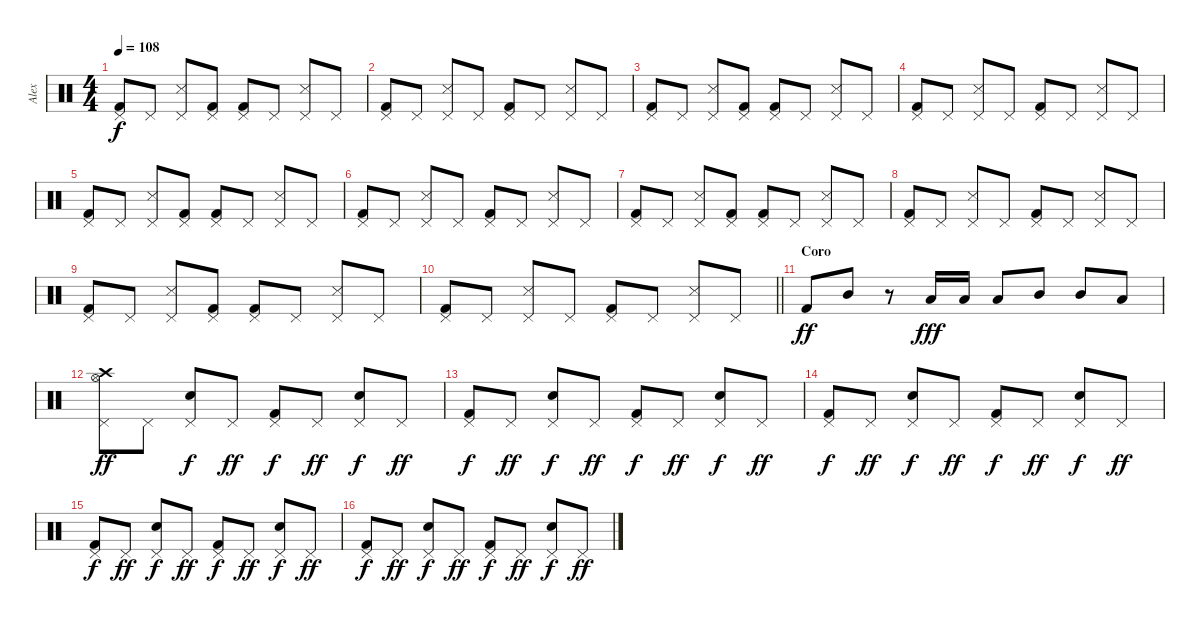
\track ("Alex" "Alex") {instrument percussion}
\staff {score}
\articulation defaults
\ts (4 4)
\tempo 108
\clef neutral
\ks c
("Kick (hit) 2" "Pedal Hi-Hat (hit)").8{dy f} "Pedal Hi-Hat (hit)".8 ("Snare (side stick) 3" "Pedal Hi-Hat (hit)").8 ("Kick (hit) 2" "Pedal Hi-Hat (hit)").8 ("Kick (hit) 2" "Pedal Hi-Hat (hit)").8 "Pedal Hi-Hat (hit)".8 ("Snare (side stick) 3" "Pedal Hi-Hat (hit)").8 "Pedal Hi-Hat (hit)".8 |
("Kick (hit) 2" "Pedal Hi-Hat (hit)").8 "Pedal Hi-Hat (hit)".8 ("Snare (side stick) 3" "Pedal Hi-Hat (hit)").8 "Pedal Hi-Hat (hit)".8 ("Kick (hit) 2" "Pedal Hi-Hat (hit)").8 "Pedal Hi-Hat (hit)".8 ("Snare (side stick) 3" "Pedal Hi-Hat (hit)").8 "Pedal Hi-Hat (hit)".8 |
("Kick (hit) 2" "Pedal Hi-Hat (hit)").8 "Pedal Hi-Hat (hit)".8 ("Snare (side stick) 3" "Pedal Hi-Hat (hit)").8 ("Kick (hit) 2" "Pedal Hi-Hat (hit)").8 ("Kick (hit) 2" "Pedal Hi-Hat (hit)").8 "Pedal Hi-Hat (hit)".8 ("Snare (side stick) 3" "Pedal Hi-Hat (hit)").8 "Pedal Hi-Hat (hit)".8 |
("Kick (hit) 2" "Pedal Hi-Hat (hit)").8 "Pedal Hi-Hat (hit)".8 ("Snare (side stick) 3" "Pedal Hi-Hat (hit)").8 "Pedal Hi-Hat (hit)".8 ("Kick (hit) 2" "Pedal Hi-Hat (hit)").8 "Pedal Hi-Hat (hit)".8 ("Snare (side stick) 3" "Pedal Hi-Hat (hit)").8 "Pedal Hi-Hat (hit)".8 |
("Kick (hit) 2" "Pedal Hi-Hat (hit)").8 "Pedal Hi-Hat (hit)".8 ("Snare (side stick) 3" "Pedal Hi-Hat (hit)").8 ("Kick (hit) 2" "Pedal Hi-Hat (hit)").8 ("Kick (hit) 2" "Pedal Hi-Hat (hit)").8 "Pedal Hi-Hat (hit)".8 ("Snare (side stick) 3" "Pedal Hi-Hat (hit)").8 "Pedal Hi-Hat (hit)".8 |
("Kick (hit) 2" "Pedal Hi-Hat (hit)").8 "Pedal Hi-Hat (hit)".8 ("Snare (side stick) 3" "Pedal Hi-Hat (hit)").8 "Pedal Hi-Hat (hit)".8 ("Kick (hit) 2" "Pedal Hi-Hat (hit)").8 "Pedal Hi-Hat (hit)".8 ("Snare (side stick) 3" "Pedal Hi-Hat (hit)").8 "Pedal Hi-Hat (hit)".8 |
("Kick (hit) 2" "Pedal Hi-Hat (hit)").8 "Pedal Hi-Hat (hit)".8 ("Snare (side stick) 3" "Pedal Hi-Hat (hit)").8 ("Kick (hit) 2" "Pedal Hi-Hat (hit)").8 ("Kick (hit) 2" "Pedal Hi-Hat (hit)").8 "Pedal Hi-Hat (hit)".8 ("Snare (side stick) 3" "Pedal Hi-Hat (hit)").8 "Pedal Hi-Hat (hit)".8 |
("Kick (hit) 2" "Pedal Hi-Hat (hit)").8 "Pedal Hi-Hat (hit)".8 ("Snare (side stick) 3" "Pedal Hi-Hat (hit)").8 "Pedal Hi-Hat (hit)".8 ("Kick (hit) 2" "Pedal Hi-Hat (hit)").8 "Pedal Hi-Hat (hit)".8 ("Snare (side stick) 3" "Pedal Hi-Hat (hit)").8 "Pedal Hi-Hat (hit)".8 |
("Kick (hit) 2" "Pedal Hi-Hat (hit)").8 "Pedal Hi-Hat (hit)".8 ("Snare (side stick) 3" "Pedal Hi-Hat (hit)").8 ("Kick (hit) 2" "Pedal Hi-Hat (hit)").8 ("Kick (hit) 2" "Pedal Hi-Hat (hit)").8 "Pedal Hi-Hat (hit)".8 ("Snare (side stick) 3" "Pedal Hi-Hat (hit)").8 "Pedal Hi-Hat (hit)".8 |
\barLineRight lightlight
("Kick (hit) 2" "Pedal Hi-Hat (hit)").8 "Pedal Hi-Hat (hit)".8 ("Snare (side stick) 3" "Pedal Hi-Hat (hit)").8 "Pedal Hi-Hat (hit)".8 ("Kick (hit) 2" "Pedal Hi-Hat (hit)").8 "Pedal Hi-Hat (hit)".8 ("Snare (side stick) 3" "Pedal Hi-Hat (hit)").8 "Pedal Hi-Hat (hit)".8 |
\section ("" "Coro")
"Kick (hit) 2".8{dy ff} "Mid Tom (hit)".8 r.8 "Low Tom (hit)".16{dy fff} "Low Tom (hit)".16 "Low Tom (hit)".8 "Mid Tom (hit)".8 "Mid Tom (hit)".8 "Low Tom (hit)".8 |
("Hi-Hat (open)" "Crash high (hit)" "Pedal Hi-Hat (hit)").8{dy ff} "Pedal Hi-Hat (hit)".8 ("Electric Snare (hit)" "Pedal Hi-Hat (hit)").8{dy f} "Pedal Hi-Hat (hit)".8{dy ff} ("Kick (hit) 2" "Pedal Hi-Hat (hit)").8{dy f} "Pedal Hi-Hat (hit)".8{dy ff} ("Electric Snare (hit)" "Pedal Hi-Hat (hit)").8{dy f} "Pedal Hi-Hat (hit)".8{dy ff} |
("Kick (hit) 2" "Pedal Hi-Hat (hit)").8{dy f} "Pedal Hi-Hat (hit)".8{dy ff} ("Electric Snare (hit)" "Pedal Hi-Hat (hit)").8{dy f} "Pedal Hi-Hat (hit)".8{dy ff} ("Kick (hit) 2" "Pedal Hi-Hat (hit)").8{dy f} "Pedal Hi-Hat (hit)".8{dy ff} ("Electric Snare (hit)" "Pedal Hi-Hat (hit)").8{dy f} "Pedal Hi-Hat (hit)".8{dy ff} |
("Kick (hit) 2" "Pedal Hi-Hat (hit)").8{dy f} "Pedal Hi-Hat (hit)".8{dy ff} ("Electric Snare (hit)" "Pedal Hi-Hat (hit)").8{dy f} "Pedal Hi-Hat (hit)".8{dy ff} ("Kick (hit) 2" "Pedal Hi-Hat (hit)").8{dy f} "Pedal Hi-Hat (hit)".8{dy ff} ("Electric Snare (hit)" "Pedal Hi-Hat (hit)").8{dy f} "Pedal Hi-Hat (hit)".8{dy ff} |
("Kick (hit) 2" "Pedal Hi-Hat (hit)").8{dy f} "Pedal Hi-Hat (hit)".8{dy ff} ("Electric Snare (hit)" "Pedal Hi-Hat (hit)").8{dy f} "Pedal Hi-Hat (hit)".8{dy ff} ("Kick (hit) 2" "Pedal Hi-Hat (hit)").8{dy f} "Pedal Hi-Hat (hit)".8{dy ff} ("Electric Snare (hit)" "Pedal Hi-Hat (hit)").8{dy f} "Pedal Hi-Hat (hit)".8{dy ff} |
("Kick (hit) 2" "Pedal Hi-Hat (hit)").8{dy f} "Pedal Hi-Hat (hit)".8{dy ff} ("Electric Snare (hit)" "Pedal Hi-Hat (hit)").8{dy f} "Pedal Hi-Hat (hit)".8{dy ff} ("Kick (hit) 2" "Pedal Hi-Hat (hit)").8{dy f} "Pedal Hi-Hat (hit)".8{dy ff} ("Electric Snare (hit)" "Pedal Hi-Hat (hit)").8{dy f} "Pedal Hi-Hat (hit)".8{dy ff}
